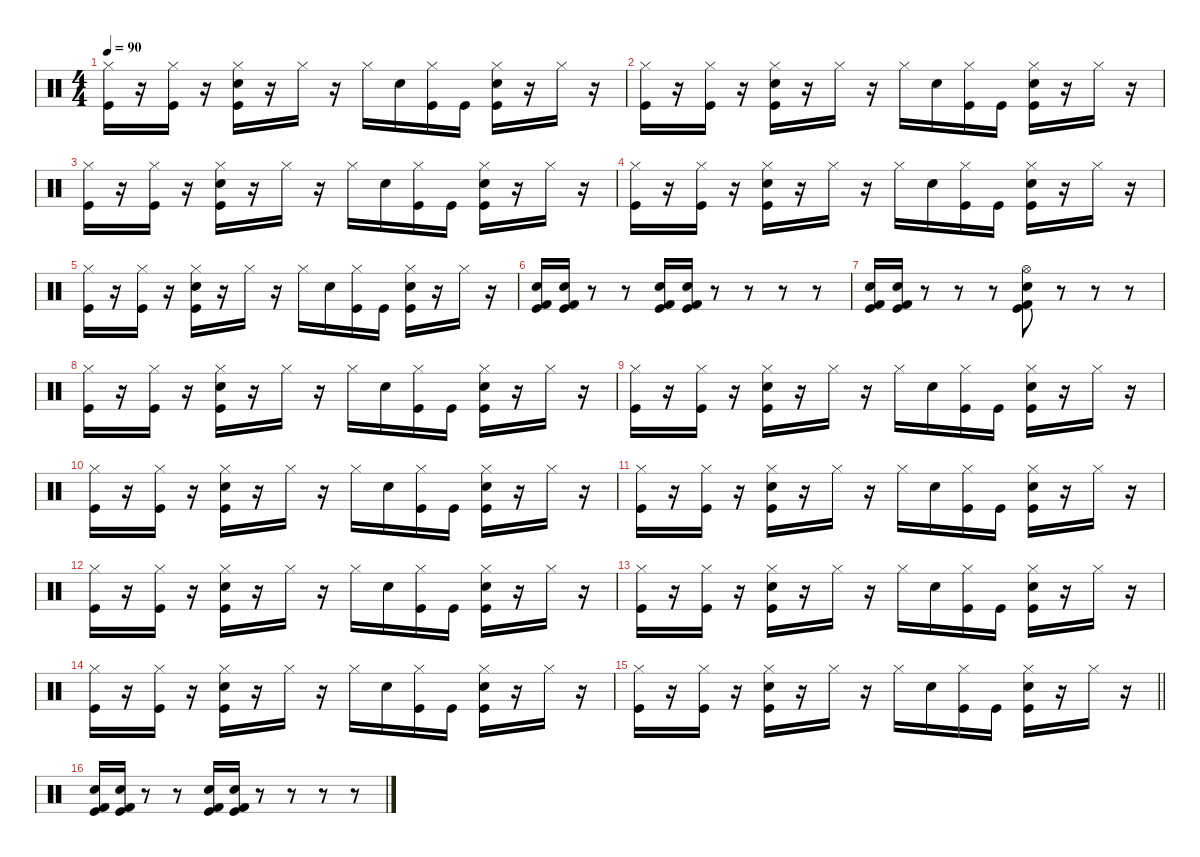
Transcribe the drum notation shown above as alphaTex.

\defaultSystemsLayout 4
\hideDynamics
\bracketExtendMode nobrackets
\singleTrackTrackNamePolicy hidden
\multiTrackTrackNamePolicy hidden
\otherSystemsTrackNameOrientation horizontal
\track ("Slagverk" "drm.") {instrument percussion}
\staff {score}
\articulation defaults
\ts (4 4)
\tempo 90
\clef neutral
\ks c
("Kick (hit)" "Hi-Hat (closed)").16{dy f beam Down} r.16{beam Down} ("Kick (hit)" "Hi-Hat (closed)").16{beam Down} r.16{beam Down} ("Kick (hit)" "Hi-Hat (closed)" "Snare (hit) 2").16{beam Down} r.16{beam Down} "Hi-Hat (closed)".16{beam Down} r.16{beam Down} "Hi-Hat (closed)".16{beam Down} "Snare (hit) 2".16{beam Down} ("Kick (hit)" "Hi-Hat (closed)").16{beam Down} "Kick (hit)".16{beam Down} ("Kick (hit)" "Hi-Hat (closed)" "Snare (hit) 2").16{beam Down} r.16{beam Down} "Hi-Hat (closed)".16{beam Down} r.16{beam Down} |
("Kick (hit)" "Hi-Hat (closed)").16{beam Down} r.16{beam Down} ("Kick (hit)" "Hi-Hat (closed)").16{beam Down} r.16{beam Down} ("Kick (hit)" "Hi-Hat (closed)" "Snare (hit) 2").16{beam Down} r.16{beam Down} "Hi-Hat (closed)".16{beam Down} r.16{beam Down} "Hi-Hat (closed)".16{beam Down} "Snare (hit) 2".16{beam Down} ("Kick (hit)" "Hi-Hat (closed)").16{beam Down} "Kick (hit)".16{beam Down} ("Kick (hit)" "Hi-Hat (closed)" "Snare (hit) 2").16{beam Down} r.16{beam Down} "Hi-Hat (closed)".16{beam Down} r.16{beam Down} |
("Kick (hit)" "Hi-Hat (closed)").16{beam Down} r.16{beam Down} ("Kick (hit)" "Hi-Hat (closed)").16{beam Down} r.16{beam Down} ("Kick (hit)" "Hi-Hat (closed)" "Snare (hit) 2").16{beam Down} r.16{beam Down} "Hi-Hat (closed)".16{beam Down} r.16{beam Down} "Hi-Hat (closed)".16{beam Down} "Snare (hit) 2".16{beam Down} ("Kick (hit)" "Hi-Hat (closed)").16{beam Down} "Kick (hit)".16{beam Down} ("Kick (hit)" "Hi-Hat (closed)" "Snare (hit) 2").16{beam Down} r.16{beam Down} "Hi-Hat (closed)".16{beam Down} r.16{beam Down} |
("Kick (hit)" "Hi-Hat (closed)").16{beam Down} r.16{beam Down} ("Kick (hit)" "Hi-Hat (closed)").16{beam Down} r.16{beam Down} ("Kick (hit)" "Hi-Hat (closed)" "Snare (hit) 2").16{beam Down} r.16{beam Down} "Hi-Hat (closed)".16{beam Down} r.16{beam Down} "Hi-Hat (closed)".16{beam Down} "Snare (hit) 2".16{beam Down} ("Kick (hit)" "Hi-Hat (closed)").16{beam Down} "Kick (hit)".16{beam Down} ("Kick (hit)" "Hi-Hat (closed)" "Snare (hit) 2").16{beam Down} r.16{beam Down} "Hi-Hat (closed)".16{beam Down} r.16{beam Down} |
("Kick (hit)" "Hi-Hat (closed)").16{beam Down} r.16{beam Down} ("Kick (hit)" "Hi-Hat (closed)").16{beam Down} r.16{beam Down} ("Kick (hit)" "Hi-Hat (closed)" "Snare (hit) 2").16{beam Down} r.16{beam Down} "Hi-Hat (closed)".16{beam Down} r.16{beam Down} "Hi-Hat (closed)".16{beam Down} "Snare (hit) 2".16{beam Down} ("Kick (hit)" "Hi-Hat (closed)").16{beam Down} "Kick (hit)".16{beam Down} ("Kick (hit)" "Hi-Hat (closed)" "Snare (hit) 2").16{beam Down} r.16{beam Down} "Hi-Hat (closed)".16{beam Down} r.16{beam Down} |
("Snare (hit) 2" "Kick (hit)" "Kick (hit) 2").16{beam Up} ("Snare (hit) 2" "Kick (hit)" "Kick (hit) 2").16{beam Up} r.8{beam Up} r.8{beam Up} ("Snare (hit) 2" "Kick (hit)" "Kick (hit) 2").16{beam Up} ("Snare (hit) 2" "Kick (hit)" "Kick (hit) 2").16{beam Up} r.8{beam Up} r.8{beam Up} r.8{beam Up} r.8{beam Up} |
("Snare (hit) 2" "Kick (hit)" "Kick (hit) 2").16{beam Up} ("Snare (hit) 2" "Kick (hit)" "Kick (hit) 2").16{beam Up} r.8{beam Up} r.8{beam Up} r.8{beam Up} ("Hi-Hat (open)" "Kick (hit)" "Snare (hit) 2" "Kick (hit) 2").8{beam Down} r.8{beam Down} r.8{beam Down} r.8{beam Down} |
("Kick (hit)" "Hi-Hat (closed)").16{beam Down} r.16{beam Down} ("Kick (hit)" "Hi-Hat (closed)").16{beam Down} r.16{beam Down} ("Kick (hit)" "Hi-Hat (closed)" "Snare (hit) 2").16{beam Down} r.16{beam Down} "Hi-Hat (closed)".16{beam Down} r.16{beam Down} "Hi-Hat (closed)".16{beam Down} "Snare (hit) 2".16{beam Down} ("Kick (hit)" "Hi-Hat (closed)").16{beam Down} "Kick (hit)".16{beam Down} ("Kick (hit)" "Hi-Hat (closed)" "Snare (hit) 2").16{beam Down} r.16{beam Down} "Hi-Hat (closed)".16{beam Down} r.16{beam Down} |
("Kick (hit)" "Hi-Hat (closed)").16{beam Down} r.16{beam Down} ("Kick (hit)" "Hi-Hat (closed)").16{beam Down} r.16{beam Down} ("Kick (hit)" "Hi-Hat (closed)" "Snare (hit) 2").16{beam Down} r.16{beam Down} "Hi-Hat (closed)".16{beam Down} r.16{beam Down} "Hi-Hat (closed)".16{beam Down} "Snare (hit) 2".16{beam Down} ("Kick (hit)" "Hi-Hat (closed)").16{beam Down} "Kick (hit)".16{beam Down} ("Kick (hit)" "Hi-Hat (closed)" "Snare (hit) 2").16{beam Down} r.16{beam Down} "Hi-Hat (closed)".16{beam Down} r.16{beam Down} |
("Kick (hit)" "Hi-Hat (closed)").16{beam Down} r.16{beam Down} ("Kick (hit)" "Hi-Hat (closed)").16{beam Down} r.16{beam Down} ("Kick (hit)" "Hi-Hat (closed)" "Snare (hit) 2").16{beam Down} r.16{beam Down} "Hi-Hat (closed)".16{beam Down} r.16{beam Down} "Hi-Hat (closed)".16{beam Down} "Snare (hit) 2".16{beam Down} ("Kick (hit)" "Hi-Hat (closed)").16{beam Down} "Kick (hit)".16{beam Down} ("Kick (hit)" "Hi-Hat (closed)" "Snare (hit) 2").16{beam Down} r.16{beam Down} "Hi-Hat (closed)".16{beam Down} r.16{beam Down} |
("Kick (hit)" "Hi-Hat (closed)").16{beam Down} r.16{beam Down} ("Kick (hit)" "Hi-Hat (closed)").16{beam Down} r.16{beam Down} ("Kick (hit)" "Hi-Hat (closed)" "Snare (hit) 2").16{beam Down} r.16{beam Down} "Hi-Hat (closed)".16{beam Down} r.16{beam Down} "Hi-Hat (closed)".16{beam Down} "Snare (hit) 2".16{beam Down} ("Kick (hit)" "Hi-Hat (closed)").16{beam Down} "Kick (hit)".16{beam Down} ("Kick (hit)" "Hi-Hat (closed)" "Snare (hit) 2").16{beam Down} r.16{beam Down} "Hi-Hat (closed)".16{beam Down} r.16{beam Down} |
("Kick (hit)" "Hi-Hat (closed)").16{beam Down} r.16{beam Down} ("Kick (hit)" "Hi-Hat (closed)").16{beam Down} r.16{beam Down} ("Kick (hit)" "Hi-Hat (closed)" "Snare (hit) 2").16{beam Down} r.16{beam Down} "Hi-Hat (closed)".16{beam Down} r.16{beam Down} "Hi-Hat (closed)".16{beam Down} "Snare (hit) 2".16{beam Down} ("Kick (hit)" "Hi-Hat (closed)").16{beam Down} "Kick (hit)".16{beam Down} ("Kick (hit)" "Hi-Hat (closed)" "Snare (hit) 2").16{beam Down} r.16{beam Down} "Hi-Hat (closed)".16{beam Down} r.16{beam Down} |
("Kick (hit)" "Hi-Hat (closed)").16{beam Down} r.16{beam Down} ("Kick (hit)" "Hi-Hat (closed)").16{beam Down} r.16{beam Down} ("Kick (hit)" "Hi-Hat (closed)" "Snare (hit) 2").16{beam Down} r.16{beam Down} "Hi-Hat (closed)".16{beam Down} r.16{beam Down} "Hi-Hat (closed)".16{beam Down} "Snare (hit) 2".16{beam Down} ("Kick (hit)" "Hi-Hat (closed)").16{beam Down} "Kick (hit)".16{beam Down} ("Kick (hit)" "Hi-Hat (closed)" "Snare (hit) 2").16{beam Down} r.16{beam Down} "Hi-Hat (closed)".16{beam Down} r.16{beam Down} |
("Kick (hit)" "Hi-Hat (closed)").16{beam Down} r.16{beam Down} ("Kick (hit)" "Hi-Hat (closed)").16{beam Down} r.16{beam Down} ("Kick (hit)" "Hi-Hat (closed)" "Snare (hit) 2").16{beam Down} r.16{beam Down} "Hi-Hat (closed)".16{beam Down} r.16{beam Down} "Hi-Hat (closed)".16{beam Down} "Snare (hit) 2".16{beam Down} ("Kick (hit)" "Hi-Hat (closed)").16{beam Down} "Kick (hit)".16{beam Down} ("Kick (hit)" "Hi-Hat (closed)" "Snare (hit) 2").16{beam Down} r.16{beam Down} "Hi-Hat (closed)".16{beam Down} r.16{beam Down} |
\barLineRight lightlight
("Kick (hit)" "Hi-Hat (closed)").16{beam Down} r.16{beam Down} ("Kick (hit)" "Hi-Hat (closed)").16{beam Down} r.16{beam Down} ("Kick (hit)" "Hi-Hat (closed)" "Snare (hit) 2").16{beam Down} r.16{beam Down} "Hi-Hat (closed)".16{beam Down} r.16{beam Down} "Hi-Hat (closed)".16{beam Down} "Snare (hit) 2".16{beam Down} ("Kick (hit)" "Hi-Hat (closed)").16{beam Down} "Kick (hit)".16{beam Down} ("Kick (hit)" "Hi-Hat (closed)" "Snare (hit) 2").16{beam Down} r.16{beam Down} "Hi-Hat (closed)".16{beam Down} r.16{beam Down} |
("Snare (hit) 2" "Kick (hit)" "Kick (hit) 2").16{beam Up} ("Snare (hit) 2" "Kick (hit)" "Kick (hit) 2").16{beam Up} r.8{beam Up} r.8{beam Up} ("Snare (hit) 2" "Kick (hit)" "Kick (hit) 2").16{beam Up} ("Snare (hit) 2" "Kick (hit)" "Kick (hit) 2").16{beam Up} r.8{beam Up} r.8{beam Up} r.8{beam Up} r.8{beam Up}
